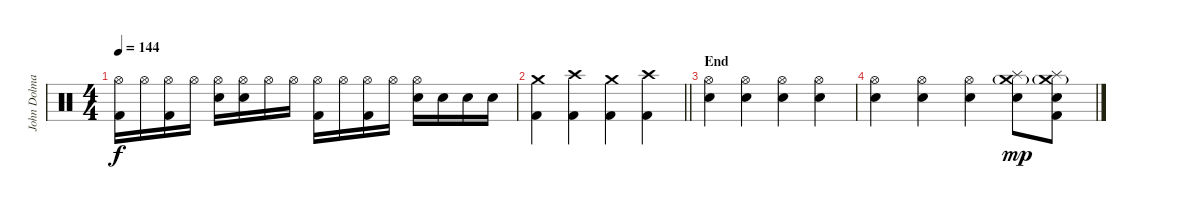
\track ("John Dolmayan" "John Dolma") {instrument percussion}
\staff {score}
\articulation defaults
\ts (4 4)
\tempo 144
\clef neutral
\ks c
("Hi-Hat (open)" "Kick (hit) 2").16{dy f} "Hi-Hat (open)".16 ("Hi-Hat (open)" "Kick (hit) 2").16 "Hi-Hat (open)".16 ("Hi-Hat (open)" "Electric Snare (hit)").16 ("Hi-Hat (open)" "Electric Snare (hit)").16 "Hi-Hat (open)".16 "Hi-Hat (open)".16 ("Hi-Hat (open)" "Kick (hit) 2").16 "Hi-Hat (open)".16 ("Hi-Hat (open)" "Kick (hit) 2").16 "Hi-Hat (open)".16 ("Hi-Hat (open)" "Electric Snare (hit)").16 "Electric Snare (hit)".16 "Electric Snare (hit)".16 "Electric Snare (hit)".16 |
\barLineRight lightlight
("Crash medium (hit)" "Kick (hit) 2").4 ("Crash high (hit)" "Kick (hit) 2").4 ("Crash medium (hit)" "Kick (hit) 2").4 ("Crash high (hit)" "Kick (hit) 2").4 |
\section ("" "End")
("Hi-Hat (open)" "Electric Snare (hit)").4 ("Hi-Hat (open)" "Electric Snare (hit)").4 ("Hi-Hat (open)" "Electric Snare (hit)").4 ("Hi-Hat (open)" "Electric Snare (hit)").4 |
("Hi-Hat (open)" "Electric Snare (hit)").4 ("Hi-Hat (open)" "Electric Snare (hit)").4 ("Hi-Hat (open)" "Electric Snare (hit)").4 ("Splash (hit)" "Crash medium (hit)"{g} "Electric Snare (hit)").8{dy mp} ("Splash (hit)" "Crash medium (hit)"{g} "Electric Snare (hit)" "Kick (hit) 2").8
